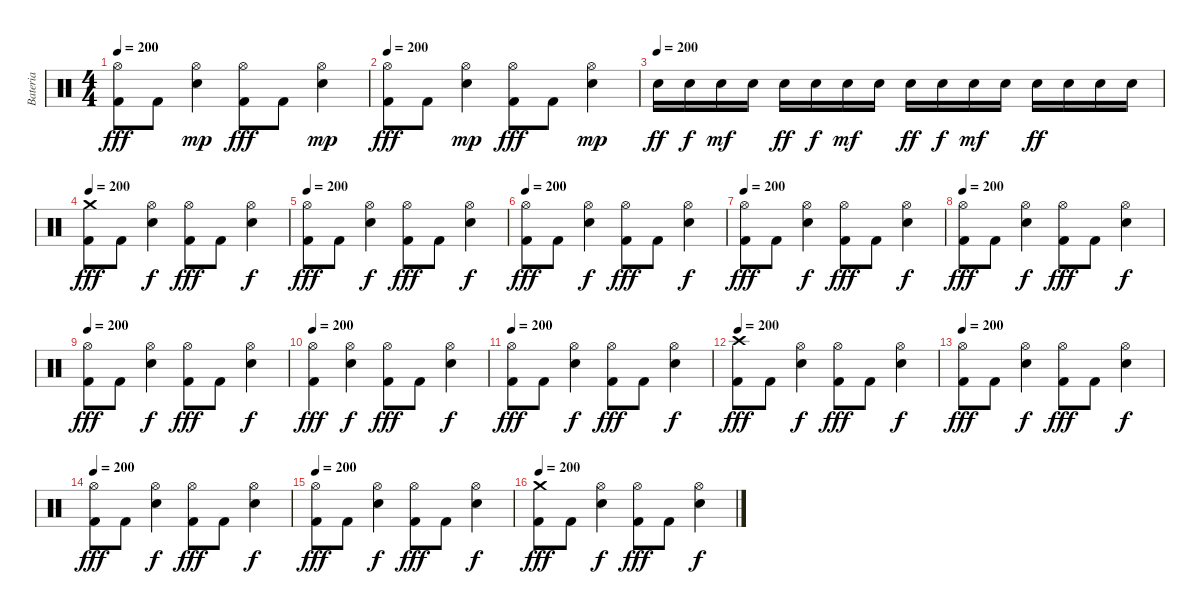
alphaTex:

\track ("Bateria" "Bateria") {instrument percussion}
\staff {score}
\articulation defaults
\ts (4 4)
\tempo 200
\clef neutral
\ks c
("Hi-Hat (open)" "Kick (hit) 2").8{dy fff} "Kick (hit) 2".8 ("Hi-Hat (open)" "Electric Snare (hit)").4{dy mp} ("Hi-Hat (open)" "Kick (hit) 2").8{dy fff} "Kick (hit) 2".8 ("Hi-Hat (open)" "Electric Snare (hit)").4{dy mp} |
\tempo 200
("Hi-Hat (open)" "Kick (hit) 2").8{dy fff} "Kick (hit) 2".8 ("Hi-Hat (open)" "Electric Snare (hit)").4{dy mp} ("Hi-Hat (open)" "Kick (hit) 2").8{dy fff} "Kick (hit) 2".8 ("Hi-Hat (open)" "Electric Snare (hit)").4{dy mp} |
\tempo (200)
"Electric Snare (hit)".16{dy ff} "Electric Snare (hit)".16{dy f} "Electric Snare (hit)".16{dy mf} "Electric Snare (hit)".16 "Electric Snare (hit)".16{dy ff} "Electric Snare (hit)".16{dy f} "Electric Snare (hit)".16{dy mf} "Electric Snare (hit)".16 "Electric Snare (hit)".16{dy ff} "Electric Snare (hit)".16{dy f} "Electric Snare (hit)".16{dy mf} "Electric Snare (hit)".16 "Electric Snare (hit)".16{dy ff} "Electric Snare (hit)".16 "Electric Snare (hit)".16 "Electric Snare (hit)".16 |
\tempo 200
("Crash medium (hit)" "Kick (hit) 2").8{dy fff} "Kick (hit) 2".8 ("Hi-Hat (open)" "Electric Snare (hit)").4{dy f} ("Hi-Hat (open)" "Kick (hit) 2").8{dy fff} "Kick (hit) 2".8 ("Hi-Hat (open)" "Electric Snare (hit)").4{dy f} |
\tempo 200
("Hi-Hat (open)" "Kick (hit) 2").8{dy fff} "Kick (hit) 2".8 ("Hi-Hat (open)" "Electric Snare (hit)").4{dy f} ("Hi-Hat (open)" "Kick (hit) 2").8{dy fff} "Kick (hit) 2".8 ("Hi-Hat (open)" "Electric Snare (hit)").4{dy f} |
\tempo 200
("Hi-Hat (open)" "Kick (hit) 2").8{dy fff} "Kick (hit) 2".8 ("Hi-Hat (open)" "Electric Snare (hit)").4{dy f} ("Hi-Hat (open)" "Kick (hit) 2").8{dy fff} "Kick (hit) 2".8 ("Hi-Hat (open)" "Electric Snare (hit)").4{dy f} |
\tempo 200
("Hi-Hat (open)" "Kick (hit) 2").8{dy fff} "Kick (hit) 2".8 ("Hi-Hat (open)" "Electric Snare (hit)").4{dy f} ("Hi-Hat (open)" "Kick (hit) 2").8{dy fff} "Kick (hit) 2".8 ("Hi-Hat (open)" "Electric Snare (hit)").4{dy f} |
\tempo 200
("Hi-Hat (open)" "Kick (hit) 2").8{dy fff} "Kick (hit) 2".8 ("Hi-Hat (open)" "Electric Snare (hit)").4{dy f} ("Hi-Hat (open)" "Kick (hit) 2").8{dy fff} "Kick (hit) 2".8 ("Hi-Hat (open)" "Electric Snare (hit)").4{dy f} |
\tempo 200
("Hi-Hat (open)" "Kick (hit) 2").8{dy fff} "Kick (hit) 2".8 ("Hi-Hat (open)" "Electric Snare (hit)").4{dy f} ("Hi-Hat (open)" "Kick (hit) 2").8{dy fff} "Kick (hit) 2".8 ("Hi-Hat (open)" "Electric Snare (hit)").4{dy f} |
\tempo 200
("Hi-Hat (open)" "Kick (hit) 2").4{dy fff} ("Hi-Hat (open)" "Electric Snare (hit)").4{dy f} ("Hi-Hat (open)" "Kick (hit) 2").8{dy fff} "Kick (hit) 2".8 ("Hi-Hat (open)" "Electric Snare (hit)").4{dy f} |
\tempo 200
("Hi-Hat (open)" "Kick (hit) 2").8{dy fff} "Kick (hit) 2".8 ("Hi-Hat (open)" "Electric Snare (hit)").4{dy f} ("Hi-Hat (open)" "Kick (hit) 2").8{dy fff} "Kick (hit) 2".8 ("Hi-Hat (open)" "Electric Snare (hit)").4{dy f} |
\tempo 200
("Crash high (hit)" "Kick (hit) 2").8{dy fff} "Kick (hit) 2".8 ("Hi-Hat (open)" "Electric Snare (hit)").4{dy f} ("Hi-Hat (open)" "Kick (hit) 2").8{dy fff} "Kick (hit) 2".8 ("Hi-Hat (open)" "Electric Snare (hit)").4{dy f} |
\tempo 200
("Hi-Hat (open)" "Kick (hit) 2").8{dy fff} "Kick (hit) 2".8 ("Hi-Hat (open)" "Electric Snare (hit)").4{dy f} ("Hi-Hat (open)" "Kick (hit) 2").8{dy fff} "Kick (hit) 2".8 ("Hi-Hat (open)" "Electric Snare (hit)").4{dy f} |
\tempo 200
("Hi-Hat (open)" "Kick (hit) 2").8{dy fff} "Kick (hit) 2".8 ("Hi-Hat (open)" "Electric Snare (hit)").4{dy f} ("Hi-Hat (open)" "Kick (hit) 2").8{dy fff} "Kick (hit) 2".8 ("Hi-Hat (open)" "Electric Snare (hit)").4{dy f} |
\tempo 200
("Hi-Hat (open)" "Kick (hit) 2").8{dy fff} "Kick (hit) 2".8 ("Hi-Hat (open)" "Electric Snare (hit)").4{dy f} ("Hi-Hat (open)" "Kick (hit) 2").8{dy fff} "Kick (hit) 2".8 ("Hi-Hat (open)" "Electric Snare (hit)").4{dy f} |
\tempo 200
("Crash medium (hit)" "Kick (hit) 2").8{dy fff} "Kick (hit) 2".8 ("Hi-Hat (open)" "Electric Snare (hit)").4{dy f} ("Hi-Hat (open)" "Kick (hit) 2").8{dy fff} "Kick (hit) 2".8 ("Hi-Hat (open)" "Electric Snare (hit)").4{dy f}
